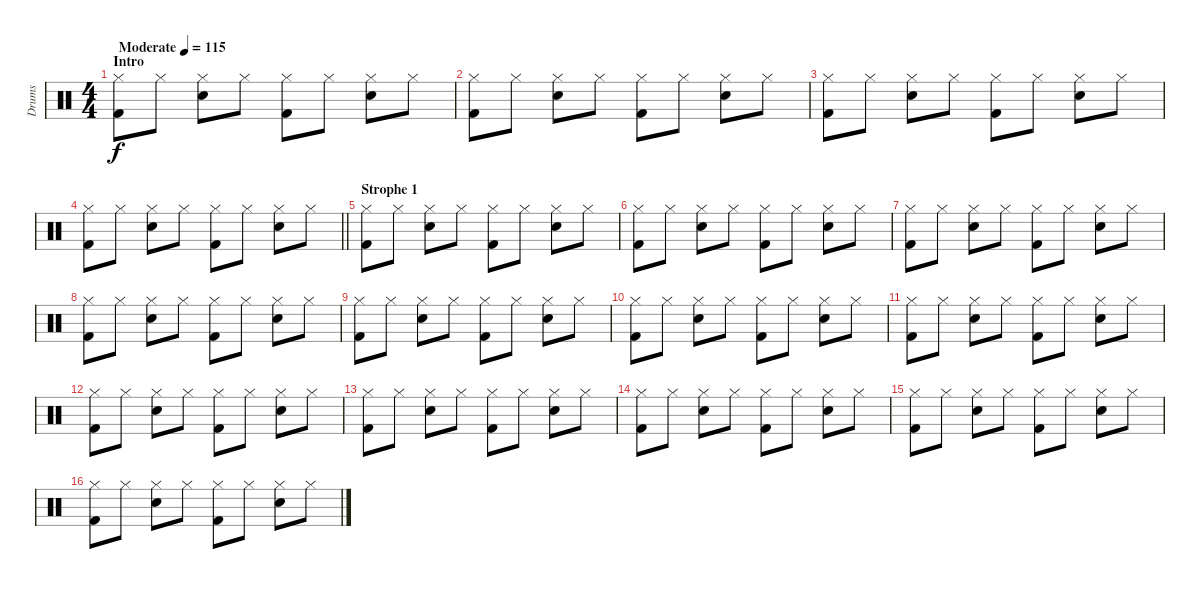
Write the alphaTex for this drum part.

\track ("Drums" "Drums") {instrument percussion}
\staff {score}
\articulation defaults
\ts (4 4)
\section ("" "Intro")
\tempo (115 "Moderate")
\clef neutral
\ks c
("Hi-Hat (closed)" "Kick (hit) 2").8{dy f} "Hi-Hat (closed)".8 ("Hi-Hat (closed)" "Snare (hit) 2").8 "Hi-Hat (closed)".8 ("Hi-Hat (closed)" "Kick (hit) 2").8 "Hi-Hat (closed)".8 ("Hi-Hat (closed)" "Snare (hit) 2").8 "Hi-Hat (closed)".8 |
("Hi-Hat (closed)" "Kick (hit) 2").8 "Hi-Hat (closed)".8 ("Hi-Hat (closed)" "Snare (hit) 2").8 "Hi-Hat (closed)".8 ("Hi-Hat (closed)" "Kick (hit) 2").8 "Hi-Hat (closed)".8 ("Hi-Hat (closed)" "Snare (hit) 2").8 "Hi-Hat (closed)".8 |
("Hi-Hat (closed)" "Kick (hit) 2").8 "Hi-Hat (closed)".8 ("Hi-Hat (closed)" "Snare (hit) 2").8 "Hi-Hat (closed)".8 ("Hi-Hat (closed)" "Kick (hit) 2").8 "Hi-Hat (closed)".8 ("Hi-Hat (closed)" "Snare (hit) 2").8 "Hi-Hat (closed)".8 |
\barLineRight lightlight
("Hi-Hat (closed)" "Kick (hit) 2").8 "Hi-Hat (closed)".8 ("Hi-Hat (closed)" "Snare (hit) 2").8 "Hi-Hat (closed)".8 ("Hi-Hat (closed)" "Kick (hit) 2").8 "Hi-Hat (closed)".8 ("Hi-Hat (closed)" "Snare (hit) 2").8 "Hi-Hat (closed)".8 |
\section ("" "Strophe 1")
("Hi-Hat (closed)" "Kick (hit) 2").8 "Hi-Hat (closed)".8 ("Hi-Hat (closed)" "Snare (hit) 2").8 "Hi-Hat (closed)".8 ("Hi-Hat (closed)" "Kick (hit) 2").8 "Hi-Hat (closed)".8 ("Hi-Hat (closed)" "Snare (hit) 2").8 "Hi-Hat (closed)".8 |
("Hi-Hat (closed)" "Kick (hit) 2").8 "Hi-Hat (closed)".8 ("Hi-Hat (closed)" "Snare (hit) 2").8 "Hi-Hat (closed)".8 ("Hi-Hat (closed)" "Kick (hit) 2").8 "Hi-Hat (closed)".8 ("Hi-Hat (closed)" "Snare (hit) 2").8 "Hi-Hat (closed)".8 |
("Hi-Hat (closed)" "Kick (hit) 2").8 "Hi-Hat (closed)".8 ("Hi-Hat (closed)" "Snare (hit) 2").8 "Hi-Hat (closed)".8 ("Hi-Hat (closed)" "Kick (hit) 2").8 "Hi-Hat (closed)".8 ("Hi-Hat (closed)" "Snare (hit) 2").8 "Hi-Hat (closed)".8 |
("Hi-Hat (closed)" "Kick (hit) 2").8 "Hi-Hat (closed)".8 ("Hi-Hat (closed)" "Snare (hit) 2").8 "Hi-Hat (closed)".8 ("Hi-Hat (closed)" "Kick (hit) 2").8 "Hi-Hat (closed)".8 ("Hi-Hat (closed)" "Snare (hit) 2").8 "Hi-Hat (closed)".8 |
("Hi-Hat (closed)" "Kick (hit) 2").8 "Hi-Hat (closed)".8 ("Hi-Hat (closed)" "Snare (hit) 2").8 "Hi-Hat (closed)".8 ("Hi-Hat (closed)" "Kick (hit) 2").8 "Hi-Hat (closed)".8 ("Hi-Hat (closed)" "Snare (hit) 2").8 "Hi-Hat (closed)".8 |
("Hi-Hat (closed)" "Kick (hit) 2").8 "Hi-Hat (closed)".8 ("Hi-Hat (closed)" "Snare (hit) 2").8 "Hi-Hat (closed)".8 ("Hi-Hat (closed)" "Kick (hit) 2").8 "Hi-Hat (closed)".8 ("Hi-Hat (closed)" "Snare (hit) 2").8 "Hi-Hat (closed)".8 |
("Hi-Hat (closed)" "Kick (hit) 2").8 "Hi-Hat (closed)".8 ("Hi-Hat (closed)" "Snare (hit) 2").8 "Hi-Hat (closed)".8 ("Hi-Hat (closed)" "Kick (hit) 2").8 "Hi-Hat (closed)".8 ("Hi-Hat (closed)" "Snare (hit) 2").8 "Hi-Hat (closed)".8 |
("Hi-Hat (closed)" "Kick (hit) 2").8 "Hi-Hat (closed)".8 ("Hi-Hat (closed)" "Snare (hit) 2").8 "Hi-Hat (closed)".8 ("Hi-Hat (closed)" "Kick (hit) 2").8 "Hi-Hat (closed)".8 ("Hi-Hat (closed)" "Snare (hit) 2").8 "Hi-Hat (closed)".8 |
("Hi-Hat (closed)" "Kick (hit) 2").8 "Hi-Hat (closed)".8 ("Hi-Hat (closed)" "Snare (hit) 2").8 "Hi-Hat (closed)".8 ("Hi-Hat (closed)" "Kick (hit) 2").8 "Hi-Hat (closed)".8 ("Hi-Hat (closed)" "Snare (hit) 2").8 "Hi-Hat (closed)".8 |
("Hi-Hat (closed)" "Kick (hit) 2").8 "Hi-Hat (closed)".8 ("Hi-Hat (closed)" "Snare (hit) 2").8 "Hi-Hat (closed)".8 ("Hi-Hat (closed)" "Kick (hit) 2").8 "Hi-Hat (closed)".8 ("Hi-Hat (closed)" "Snare (hit) 2").8 "Hi-Hat (closed)".8 |
("Hi-Hat (closed)" "Kick (hit) 2").8 "Hi-Hat (closed)".8 ("Hi-Hat (closed)" "Snare (hit) 2").8 "Hi-Hat (closed)".8 ("Hi-Hat (closed)" "Kick (hit) 2").8 "Hi-Hat (closed)".8 ("Hi-Hat (closed)" "Snare (hit) 2").8 "Hi-Hat (closed)".8 |
("Hi-Hat (closed)" "Kick (hit) 2").8 "Hi-Hat (closed)".8 ("Hi-Hat (closed)" "Snare (hit) 2").8 "Hi-Hat (closed)".8 ("Hi-Hat (closed)" "Kick (hit) 2").8 "Hi-Hat (closed)".8 ("Hi-Hat (closed)" "Snare (hit) 2").8 "Hi-Hat (closed)".8
